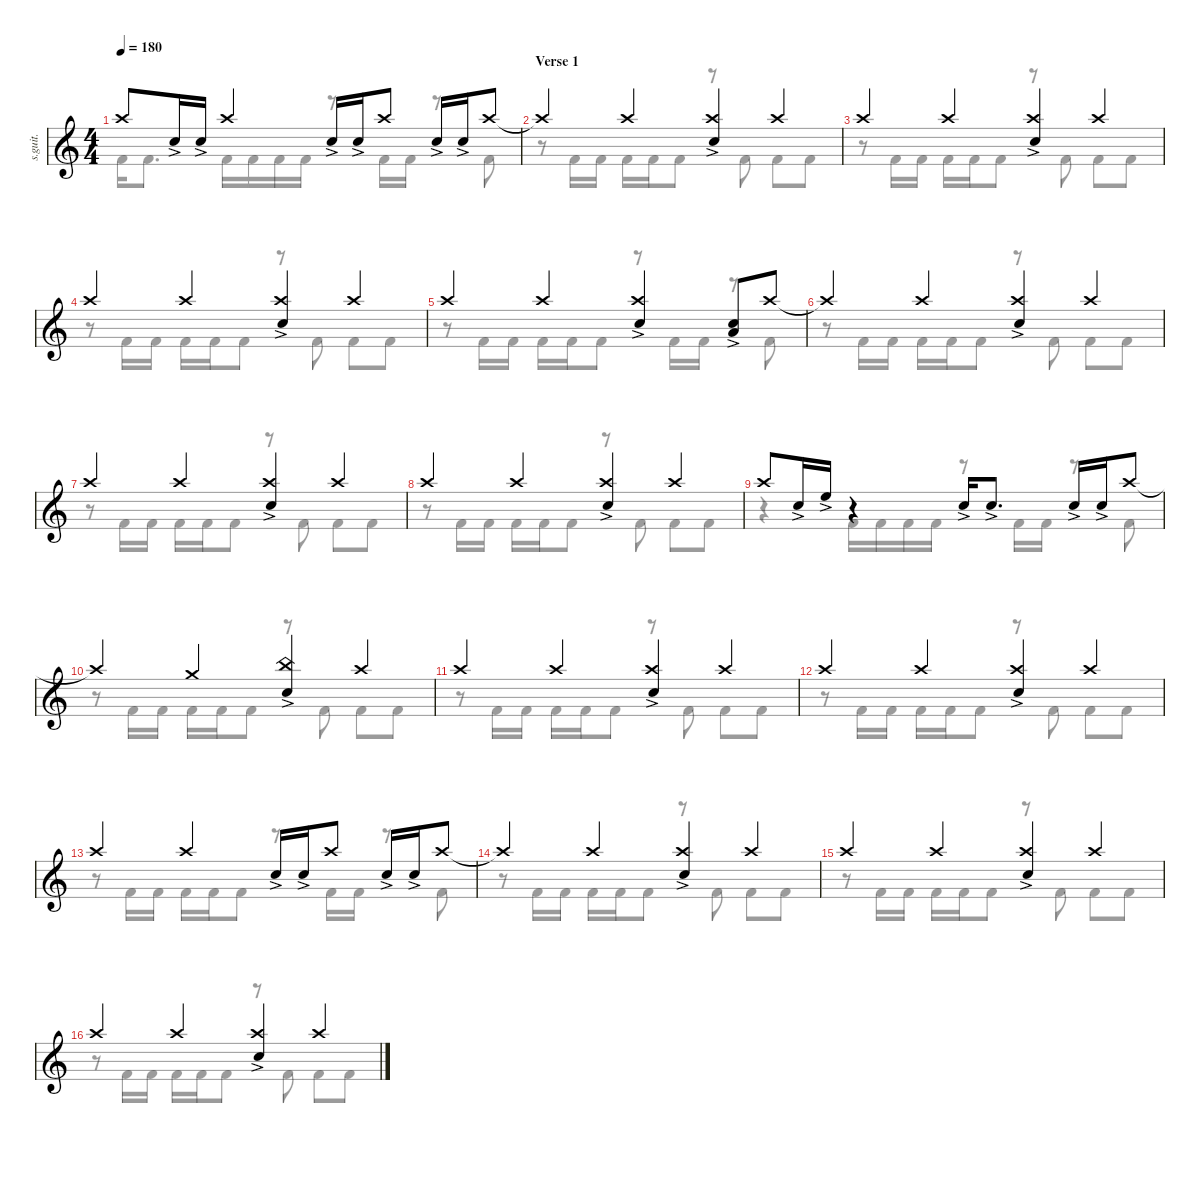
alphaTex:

\defaultSystemsLayout 4
\hideDynamics
\bracketExtendMode nobrackets
\track ("Percussion" "s.guit.") {instrument percussion}
\staff {score}
\articulation defaults
\voice
\ts (4 4)
\tempo 180
\clef g2
\ks c "Crash high (hit)".8{lyrics (0 "") lyrics (1 "") lyrics (2 "") lyrics (3 "") lyrics (4 "") dy f} "Snare (hit) 2"{ac}.16{lyrics (0 "") lyrics (1 "") lyrics (2 "") lyrics (3 "") lyrics (4 "")} "Snare (hit) 2"{ac}.16{lyrics (0 "") lyrics (1 "") lyrics (2 "") lyrics (3 "") lyrics (4 "")} "Crash high (hit)".4{lyrics (0 "") lyrics (1 "") lyrics (2 "") lyrics (3 "") lyrics (4 "")} "Snare (hit) 2"{ac}.16{lyrics (0 "") lyrics (1 "") lyrics (2 "") lyrics (3 "") lyrics (4 "")} "Snare (hit) 2"{ac}.16{lyrics (0 "") lyrics (1 "") lyrics (2 "") lyrics (3 "") lyrics (4 "")} "Crash high (hit)".8{lyrics (0 "") lyrics (1 "") lyrics (2 "") lyrics (3 "") lyrics (4 "")} "Snare (hit) 2"{ac}.16{lyrics (0 "") lyrics (1 "") lyrics (2 "") lyrics (3 "") lyrics (4 "")} "Snare (hit) 2"{ac}.16{lyrics (0 "") lyrics (1 "") lyrics (2 "") lyrics (3 "") lyrics (4 "")} "Crash high (hit)".8{lyrics (0 "") lyrics (1 "") lyrics (2 "") lyrics (3 "") lyrics (4 "")}
|
\section ("" "Verse 1")
"Crash high (hit)"{t}.4{lyrics (0 "") lyrics (1 "") lyrics (2 "") lyrics (3 "") lyrics (4 "")} "Crash high (hit)".4{lyrics (0 "") lyrics (1 "") lyrics (2 "") lyrics (3 "") lyrics (4 "")} ("Crash high (hit)" "Snare (hit) 2"{ac}).4{lyrics (0 "") lyrics (1 "") lyrics (2 "") lyrics (3 "") lyrics (4 "")} "Crash high (hit)".4{lyrics (0 "") lyrics (1 "") lyrics (2 "") lyrics (3 "") lyrics (4 "")} |
"Crash high (hit)".4{lyrics (0 "") lyrics (1 "") lyrics (2 "") lyrics (3 "") lyrics (4 "")} "Crash high (hit)".4{lyrics (0 "") lyrics (1 "") lyrics (2 "") lyrics (3 "") lyrics (4 "")} ("Crash high (hit)" "Snare (hit) 2"{ac}).4{lyrics (0 "") lyrics (1 "") lyrics (2 "") lyrics (3 "") lyrics (4 "")} "Crash high (hit)".4{lyrics (0 "") lyrics (1 "") lyrics (2 "") lyrics (3 "") lyrics (4 "")} |
"Crash high (hit)".4{lyrics (0 "") lyrics (1 "") lyrics (2 "") lyrics (3 "") lyrics (4 "")} "Crash high (hit)".4{lyrics (0 "") lyrics (1 "") lyrics (2 "") lyrics (3 "") lyrics (4 "")} ("Crash high (hit)" "Snare (hit) 2"{ac}).4{lyrics (0 "") lyrics (1 "") lyrics (2 "") lyrics (3 "") lyrics (4 "")} "Crash high (hit)".4{lyrics (0 "") lyrics (1 "") lyrics (2 "") lyrics (3 "") lyrics (4 "")} |
"Crash high (hit)".4{lyrics (0 "") lyrics (1 "") lyrics (2 "") lyrics (3 "") lyrics (4 "")} "Crash high (hit)".4{lyrics (0 "") lyrics (1 "") lyrics (2 "") lyrics (3 "") lyrics (4 "")} ("Crash high (hit)" "Snare (hit) 2"{ac}).4{lyrics (0 "") lyrics (1 "") lyrics (2 "") lyrics (3 "") lyrics (4 "")} ("Snare (hit) 2"{ac} "Low Tom (hit)"{ac}).8{lyrics (0 "") lyrics (1 "") lyrics (2 "") lyrics (3 "") lyrics (4 "")} "Crash high (hit)".8{lyrics (0 "") lyrics (1 "") lyrics (2 "") lyrics (3 "") lyrics (4 "")} |
"Crash high (hit)"{t}.4{lyrics (0 "") lyrics (1 "") lyrics (2 "") lyrics (3 "") lyrics (4 "")} "Crash high (hit)".4{lyrics (0 "") lyrics (1 "") lyrics (2 "") lyrics (3 "") lyrics (4 "")} ("Crash high (hit)" "Snare (hit) 2"{ac}).4{lyrics (0 "") lyrics (1 "") lyrics (2 "") lyrics (3 "") lyrics (4 "")} "Crash high (hit)".4{lyrics (0 "") lyrics (1 "") lyrics (2 "") lyrics (3 "") lyrics (4 "")} |
"Crash high (hit)".4{lyrics (0 "") lyrics (1 "") lyrics (2 "") lyrics (3 "") lyrics (4 "")} "Crash high (hit)".4{lyrics (0 "") lyrics (1 "") lyrics (2 "") lyrics (3 "") lyrics (4 "")} ("Crash high (hit)" "Snare (hit) 2"{ac}).4{lyrics (0 "") lyrics (1 "") lyrics (2 "") lyrics (3 "") lyrics (4 "")} "Crash high (hit)".4{lyrics (0 "") lyrics (1 "") lyrics (2 "") lyrics (3 "") lyrics (4 "")} |
"Crash high (hit)".4{lyrics (0 "") lyrics (1 "") lyrics (2 "") lyrics (3 "") lyrics (4 "")} "Crash high (hit)".4{lyrics (0 "") lyrics (1 "") lyrics (2 "") lyrics (3 "") lyrics (4 "")} ("Crash high (hit)" "Snare (hit) 2"{ac}).4{lyrics (0 "") lyrics (1 "") lyrics (2 "") lyrics (3 "") lyrics (4 "")} "Crash high (hit)".4{lyrics (0 "") lyrics (1 "") lyrics (2 "") lyrics (3 "") lyrics (4 "")} |
"Crash high (hit)".8{lyrics (0 "") lyrics (1 "") lyrics (2 "") lyrics (3 "") lyrics (4 "")} "Snare (hit) 2"{ac}.16{lyrics (0 "") lyrics (1 "") lyrics (2 "") lyrics (3 "") lyrics (4 "")} "High Floor Tom (hit)"{ac}.16{lyrics (0 "") lyrics (1 "") lyrics (2 "") lyrics (3 "") lyrics (4 "")} r.4 "Snare (hit) 2"{ac}.16{lyrics (0 "") lyrics (1 "") lyrics (2 "") lyrics (3 "") lyrics (4 "")} "Snare (hit) 2"{ac}.8{d lyrics (0 "") lyrics (1 "") lyrics (2 "") lyrics (3 "") lyrics (4 "")} "Snare (hit) 2"{ac}.16{lyrics (0 "") lyrics (1 "") lyrics (2 "") lyrics (3 "") lyrics (4 "")} "Snare (hit) 2"{ac}.16{lyrics (0 "") lyrics (1 "") lyrics (2 "") lyrics (3 "") lyrics (4 "")} "Crash high (hit)".8{lyrics (0 "") lyrics (1 "") lyrics (2 "") lyrics (3 "") lyrics (4 "")} |
"Crash high (hit)"{t}.4{lyrics (0 "") lyrics (1 "") lyrics (2 "") lyrics (3 "") lyrics (4 "")} "Crash medium (hit)".4{lyrics (0 "") lyrics (1 "") lyrics (2 "") lyrics (3 "") lyrics (4 "")} ("Snare (hit) 2"{ac} "China (hit)").4{lyrics (0 "") lyrics (1 "") lyrics (2 "") lyrics (3 "") lyrics (4 "")} "Crash high (hit)".4{lyrics (0 "") lyrics (1 "") lyrics (2 "") lyrics (3 "") lyrics (4 "")} |
"Crash high (hit)".4{lyrics (0 "") lyrics (1 "") lyrics (2 "") lyrics (3 "") lyrics (4 "")} "Crash high (hit)".4{lyrics (0 "") lyrics (1 "") lyrics (2 "") lyrics (3 "") lyrics (4 "")} ("Crash high (hit)" "Snare (hit) 2"{ac}).4{lyrics (0 "") lyrics (1 "") lyrics (2 "") lyrics (3 "") lyrics (4 "")} "Crash high (hit)".4{lyrics (0 "") lyrics (1 "") lyrics (2 "") lyrics (3 "") lyrics (4 "")} |
"Crash high (hit)".4{lyrics (0 "") lyrics (1 "") lyrics (2 "") lyrics (3 "") lyrics (4 "")} "Crash high (hit)".4{lyrics (0 "") lyrics (1 "") lyrics (2 "") lyrics (3 "") lyrics (4 "")} ("Crash high (hit)" "Snare (hit) 2"{ac}).4{lyrics (0 "") lyrics (1 "") lyrics (2 "") lyrics (3 "") lyrics (4 "")} "Crash high (hit)".4{lyrics (0 "") lyrics (1 "") lyrics (2 "") lyrics (3 "") lyrics (4 "")} |
"Crash high (hit)".4{lyrics (0 "") lyrics (1 "") lyrics (2 "") lyrics (3 "") lyrics (4 "")} "Crash high (hit)".4{lyrics (0 "") lyrics (1 "") lyrics (2 "") lyrics (3 "") lyrics (4 "")} "Snare (hit) 2"{ac}.16{lyrics (0 "") lyrics (1 "") lyrics (2 "") lyrics (3 "") lyrics (4 "")} "Snare (hit) 2"{ac}.16{lyrics (0 "") lyrics (1 "") lyrics (2 "") lyrics (3 "") lyrics (4 "")} "Crash high (hit)".8{lyrics (0 "") lyrics (1 "") lyrics (2 "") lyrics (3 "") lyrics (4 "")} "Snare (hit) 2"{ac}.16{lyrics (0 "") lyrics (1 "") lyrics (2 "") lyrics (3 "") lyrics (4 "")} "Snare (hit) 2"{ac}.16{lyrics (0 "") lyrics (1 "") lyrics (2 "") lyrics (3 "") lyrics (4 "")} "Crash high (hit)".8{lyrics (0 "") lyrics (1 "") lyrics (2 "") lyrics (3 "") lyrics (4 "")} |
"Crash high (hit)"{t}.4{lyrics (0 "") lyrics (1 "") lyrics (2 "") lyrics (3 "") lyrics (4 "")} "Crash high (hit)".4{lyrics (0 "") lyrics (1 "") lyrics (2 "") lyrics (3 "") lyrics (4 "")} ("Crash high (hit)" "Snare (hit) 2"{ac}).4{lyrics (0 "") lyrics (1 "") lyrics (2 "") lyrics (3 "") lyrics (4 "")} "Crash high (hit)".4{lyrics (0 "") lyrics (1 "") lyrics (2 "") lyrics (3 "") lyrics (4 "")} |
"Crash high (hit)".4{lyrics (0 "") lyrics (1 "") lyrics (2 "") lyrics (3 "") lyrics (4 "")} "Crash high (hit)".4{lyrics (0 "") lyrics (1 "") lyrics (2 "") lyrics (3 "") lyrics (4 "")} ("Crash high (hit)" "Snare (hit) 2"{ac}).4{lyrics (0 "") lyrics (1 "") lyrics (2 "") lyrics (3 "") lyrics (4 "")} "Crash high (hit)".4{lyrics (0 "") lyrics (1 "") lyrics (2 "") lyrics (3 "") lyrics (4 "")} |
"Crash high (hit)".4{lyrics (0 "") lyrics (1 "") lyrics (2 "") lyrics (3 "") lyrics (4 "")} "Crash high (hit)".4{lyrics (0 "") lyrics (1 "") lyrics (2 "") lyrics (3 "") lyrics (4 "")} ("Crash high (hit)" "Snare (hit) 2"{ac}).4{lyrics (0 "") lyrics (1 "") lyrics (2 "") lyrics (3 "") lyrics (4 "")} "Crash high (hit)".4{lyrics (0 "") lyrics (1 "") lyrics (2 "") lyrics (3 "") lyrics (4 "")}
\voice
\clef g2
\ottava regular
\simile none
\ks c "Kick (hit) 2".16{lyrics (0 "") lyrics (1 "") lyrics (2 "") lyrics (3 "") lyrics (4 "") dy f} "Kick (hit) 2".8{d lyrics (0 "") lyrics (1 "") lyrics (2 "") lyrics (3 "") lyrics (4 "")} "Kick (hit) 2".16{lyrics (0 "") lyrics (1 "") lyrics (2 "") lyrics (3 "") lyrics (4 "")} "Kick (hit) 2".16{lyrics (0 "") lyrics (1 "") lyrics (2 "") lyrics (3 "") lyrics (4 "")} "Kick (hit) 2".16{lyrics (0 "") lyrics (1 "") lyrics (2 "") lyrics (3 "") lyrics (4 "")} "Kick (hit) 2".16{lyrics (0 "") lyrics (1 "") lyrics (2 "") lyrics (3 "") lyrics (4 "")}
r.8 "Kick (hit) 2".16{lyrics (0 "") lyrics (1 "") lyrics (2 "") lyrics (3 "") lyrics (4 "")} "Kick (hit) 2".16{lyrics (0 "") lyrics (1 "") lyrics (2 "") lyrics (3 "") lyrics (4 "")} r.8 "Kick (hit) 2".8{lyrics (0 "") lyrics (1 "") lyrics (2 "") lyrics (3 "") lyrics (4 "")} |
r.8 "Kick (hit) 2".16{lyrics (0 "") lyrics (1 "") lyrics (2 "") lyrics (3 "") lyrics (4 "")} "Kick (hit) 2".16{lyrics (0 "") lyrics (1 "") lyrics (2 "") lyrics (3 "") lyrics (4 "")} "Kick (hit) 2".16{lyrics (0 "") lyrics (1 "") lyrics (2 "") lyrics (3 "") lyrics (4 "")} "Kick (hit) 2".16{lyrics (0 "") lyrics (1 "") lyrics (2 "") lyrics (3 "") lyrics (4 "")} "Kick (hit) 2".8{lyrics (0 "") lyrics (1 "") lyrics (2 "") lyrics (3 "") lyrics (4 "")} r.8 "Kick (hit) 2".8{lyrics (0 "") lyrics (1 "") lyrics (2 "") lyrics (3 "") lyrics (4 "")} "Kick (hit) 2".8{lyrics (0 "") lyrics (1 "") lyrics (2 "") lyrics (3 "") lyrics (4 "")} "Kick (hit) 2".8{lyrics (0 "") lyrics (1 "") lyrics (2 "") lyrics (3 "") lyrics (4 "")} |
r.8 "Kick (hit) 2".16{lyrics (0 "") lyrics (1 "") lyrics (2 "") lyrics (3 "") lyrics (4 "")} "Kick (hit) 2".16{lyrics (0 "") lyrics (1 "") lyrics (2 "") lyrics (3 "") lyrics (4 "")} "Kick (hit) 2".16{lyrics (0 "") lyrics (1 "") lyrics (2 "") lyrics (3 "") lyrics (4 "")} "Kick (hit) 2".16{lyrics (0 "") lyrics (1 "") lyrics (2 "") lyrics (3 "") lyrics (4 "")} "Kick (hit) 2".8{lyrics (0 "") lyrics (1 "") lyrics (2 "") lyrics (3 "") lyrics (4 "")} r.8 "Kick (hit) 2".8{lyrics (0 "") lyrics (1 "") lyrics (2 "") lyrics (3 "") lyrics (4 "")} "Kick (hit) 2".8{lyrics (0 "") lyrics (1 "") lyrics (2 "") lyrics (3 "") lyrics (4 "")} "Kick (hit) 2".8{lyrics (0 "") lyrics (1 "") lyrics (2 "") lyrics (3 "") lyrics (4 "")} |
r.8 "Kick (hit) 2".16{lyrics (0 "") lyrics (1 "") lyrics (2 "") lyrics (3 "") lyrics (4 "")} "Kick (hit) 2".16{lyrics (0 "") lyrics (1 "") lyrics (2 "") lyrics (3 "") lyrics (4 "")} "Kick (hit) 2".16{lyrics (0 "") lyrics (1 "") lyrics (2 "") lyrics (3 "") lyrics (4 "")} "Kick (hit) 2".16{lyrics (0 "") lyrics (1 "") lyrics (2 "") lyrics (3 "") lyrics (4 "")} "Kick (hit) 2".8{lyrics (0 "") lyrics (1 "") lyrics (2 "") lyrics (3 "") lyrics (4 "")} r.8 "Kick (hit) 2".8{lyrics (0 "") lyrics (1 "") lyrics (2 "") lyrics (3 "") lyrics (4 "")} "Kick (hit) 2".8{lyrics (0 "") lyrics (1 "") lyrics (2 "") lyrics (3 "") lyrics (4 "")} "Kick (hit) 2".8{lyrics (0 "") lyrics (1 "") lyrics (2 "") lyrics (3 "") lyrics (4 "")} |
r.8 "Kick (hit) 2".16{lyrics (0 "") lyrics (1 "") lyrics (2 "") lyrics (3 "") lyrics (4 "")} "Kick (hit) 2".16{lyrics (0 "") lyrics (1 "") lyrics (2 "") lyrics (3 "") lyrics (4 "")} "Kick (hit) 2".16{lyrics (0 "") lyrics (1 "") lyrics (2 "") lyrics (3 "") lyrics (4 "")} "Kick (hit) 2".16{lyrics (0 "") lyrics (1 "") lyrics (2 "") lyrics (3 "") lyrics (4 "")} "Kick (hit) 2".8{lyrics (0 "") lyrics (1 "") lyrics (2 "") lyrics (3 "") lyrics (4 "")} r.8 "Kick (hit) 2".16{lyrics (0 "") lyrics (1 "") lyrics (2 "") lyrics (3 "") lyrics (4 "")} "Kick (hit) 2".16{lyrics (0 "") lyrics (1 "") lyrics (2 "") lyrics (3 "") lyrics (4 "")} r.8 "Kick (hit) 2".8{lyrics (0 "") lyrics (1 "") lyrics (2 "") lyrics (3 "") lyrics (4 "")} |
r.8 "Kick (hit) 2".16{lyrics (0 "") lyrics (1 "") lyrics (2 "") lyrics (3 "") lyrics (4 "")} "Kick (hit) 2".16{lyrics (0 "") lyrics (1 "") lyrics (2 "") lyrics (3 "") lyrics (4 "")} "Kick (hit) 2".16{lyrics (0 "") lyrics (1 "") lyrics (2 "") lyrics (3 "") lyrics (4 "")} "Kick (hit) 2".16{lyrics (0 "") lyrics (1 "") lyrics (2 "") lyrics (3 "") lyrics (4 "")} "Kick (hit) 2".8{lyrics (0 "") lyrics (1 "") lyrics (2 "") lyrics (3 "") lyrics (4 "")} r.8 "Kick (hit) 2".8{lyrics (0 "") lyrics (1 "") lyrics (2 "") lyrics (3 "") lyrics (4 "")} "Kick (hit) 2".8{lyrics (0 "") lyrics (1 "") lyrics (2 "") lyrics (3 "") lyrics (4 "")} "Kick (hit) 2".8{lyrics (0 "") lyrics (1 "") lyrics (2 "") lyrics (3 "") lyrics (4 "")} |
r.8 "Kick (hit) 2".16{lyrics (0 "") lyrics (1 "") lyrics (2 "") lyrics (3 "") lyrics (4 "")} "Kick (hit) 2".16{lyrics (0 "") lyrics (1 "") lyrics (2 "") lyrics (3 "") lyrics (4 "")} "Kick (hit) 2".16{lyrics (0 "") lyrics (1 "") lyrics (2 "") lyrics (3 "") lyrics (4 "")} "Kick (hit) 2".16{lyrics (0 "") lyrics (1 "") lyrics (2 "") lyrics (3 "") lyrics (4 "")} "Kick (hit) 2".8{lyrics (0 "") lyrics (1 "") lyrics (2 "") lyrics (3 "") lyrics (4 "")} r.8 "Kick (hit) 2".8{lyrics (0 "") lyrics (1 "") lyrics (2 "") lyrics (3 "") lyrics (4 "")} "Kick (hit) 2".8{lyrics (0 "") lyrics (1 "") lyrics (2 "") lyrics (3 "") lyrics (4 "")} "Kick (hit) 2".8{lyrics (0 "") lyrics (1 "") lyrics (2 "") lyrics (3 "") lyrics (4 "")} |
r.8 "Kick (hit) 2".16{lyrics (0 "") lyrics (1 "") lyrics (2 "") lyrics (3 "") lyrics (4 "")} "Kick (hit) 2".16{lyrics (0 "") lyrics (1 "") lyrics (2 "") lyrics (3 "") lyrics (4 "")} "Kick (hit) 2".16{lyrics (0 "") lyrics (1 "") lyrics (2 "") lyrics (3 "") lyrics (4 "")} "Kick (hit) 2".16{lyrics (0 "") lyrics (1 "") lyrics (2 "") lyrics (3 "") lyrics (4 "")} "Kick (hit) 2".8{lyrics (0 "") lyrics (1 "") lyrics (2 "") lyrics (3 "") lyrics (4 "")} r.8 "Kick (hit) 2".8{lyrics (0 "") lyrics (1 "") lyrics (2 "") lyrics (3 "") lyrics (4 "")} "Kick (hit) 2".8{lyrics (0 "") lyrics (1 "") lyrics (2 "") lyrics (3 "") lyrics (4 "")} "Kick (hit) 2".8{lyrics (0 "") lyrics (1 "") lyrics (2 "") lyrics (3 "") lyrics (4 "")} |
r.4 "Kick (hit) 2".16{lyrics (0 "") lyrics (1 "") lyrics (2 "") lyrics (3 "") lyrics (4 "")} "Kick (hit) 2".16{lyrics (0 "") lyrics (1 "") lyrics (2 "") lyrics (3 "") lyrics (4 "")} "Kick (hit) 2".16{lyrics (0 "") lyrics (1 "") lyrics (2 "") lyrics (3 "") lyrics (4 "")} "Kick (hit) 2".16{lyrics (0 "") lyrics (1 "") lyrics (2 "") lyrics (3 "") lyrics (4 "")} r.8 "Kick (hit) 2".16{lyrics (0 "") lyrics (1 "") lyrics (2 "") lyrics (3 "") lyrics (4 "")} "Kick (hit) 2".16{lyrics (0 "") lyrics (1 "") lyrics (2 "") lyrics (3 "") lyrics (4 "")} r.8 "Kick (hit) 2".8{lyrics (0 "") lyrics (1 "") lyrics (2 "") lyrics (3 "") lyrics (4 "")} |
r.8 "Kick (hit) 2".16{lyrics (0 "") lyrics (1 "") lyrics (2 "") lyrics (3 "") lyrics (4 "")} "Kick (hit) 2".16{lyrics (0 "") lyrics (1 "") lyrics (2 "") lyrics (3 "") lyrics (4 "")} "Kick (hit) 2".16{lyrics (0 "") lyrics (1 "") lyrics (2 "") lyrics (3 "") lyrics (4 "")} "Kick (hit) 2".16{lyrics (0 "") lyrics (1 "") lyrics (2 "") lyrics (3 "") lyrics (4 "")} "Kick (hit) 2".8{lyrics (0 "") lyrics (1 "") lyrics (2 "") lyrics (3 "") lyrics (4 "")} r.8 "Kick (hit) 2".8{lyrics (0 "") lyrics (1 "") lyrics (2 "") lyrics (3 "") lyrics (4 "")} "Kick (hit) 2".8{lyrics (0 "") lyrics (1 "") lyrics (2 "") lyrics (3 "") lyrics (4 "")} "Kick (hit) 2".8{lyrics (0 "") lyrics (1 "") lyrics (2 "") lyrics (3 "") lyrics (4 "")} |
r.8 "Kick (hit) 2".16{lyrics (0 "") lyrics (1 "") lyrics (2 "") lyrics (3 "") lyrics (4 "")} "Kick (hit) 2".16{lyrics (0 "") lyrics (1 "") lyrics (2 "") lyrics (3 "") lyrics (4 "")} "Kick (hit) 2".16{lyrics (0 "") lyrics (1 "") lyrics (2 "") lyrics (3 "") lyrics (4 "")} "Kick (hit) 2".16{lyrics (0 "") lyrics (1 "") lyrics (2 "") lyrics (3 "") lyrics (4 "")} "Kick (hit) 2".8{lyrics (0 "") lyrics (1 "") lyrics (2 "") lyrics (3 "") lyrics (4 "")} r.8 "Kick (hit) 2".8{lyrics (0 "") lyrics (1 "") lyrics (2 "") lyrics (3 "") lyrics (4 "")} "Kick (hit) 2".8{lyrics (0 "") lyrics (1 "") lyrics (2 "") lyrics (3 "") lyrics (4 "")} "Kick (hit) 2".8{lyrics (0 "") lyrics (1 "") lyrics (2 "") lyrics (3 "") lyrics (4 "")} |
r.8 "Kick (hit) 2".16{lyrics (0 "") lyrics (1 "") lyrics (2 "") lyrics (3 "") lyrics (4 "")} "Kick (hit) 2".16{lyrics (0 "") lyrics (1 "") lyrics (2 "") lyrics (3 "") lyrics (4 "")} "Kick (hit) 2".16{lyrics (0 "") lyrics (1 "") lyrics (2 "") lyrics (3 "") lyrics (4 "")} "Kick (hit) 2".16{lyrics (0 "") lyrics (1 "") lyrics (2 "") lyrics (3 "") lyrics (4 "")} "Kick (hit) 2".8{lyrics (0 "") lyrics (1 "") lyrics (2 "") lyrics (3 "") lyrics (4 "")} r.8 "Kick (hit) 2".8{lyrics (0 "") lyrics (1 "") lyrics (2 "") lyrics (3 "") lyrics (4 "")} "Kick (hit) 2".8{lyrics (0 "") lyrics (1 "") lyrics (2 "") lyrics (3 "") lyrics (4 "")} "Kick (hit) 2".8{lyrics (0 "") lyrics (1 "") lyrics (2 "") lyrics (3 "") lyrics (4 "")} |
r.8 "Kick (hit) 2".16{lyrics (0 "") lyrics (1 "") lyrics (2 "") lyrics (3 "") lyrics (4 "")} "Kick (hit) 2".16{lyrics (0 "") lyrics (1 "") lyrics (2 "") lyrics (3 "") lyrics (4 "")} "Kick (hit) 2".16{lyrics (0 "") lyrics (1 "") lyrics (2 "") lyrics (3 "") lyrics (4 "")} "Kick (hit) 2".16{lyrics (0 "") lyrics (1 "") lyrics (2 "") lyrics (3 "") lyrics (4 "")} "Kick (hit) 2".8{lyrics (0 "") lyrics (1 "") lyrics (2 "") lyrics (3 "") lyrics (4 "")} r.8 "Kick (hit) 2".16{lyrics (0 "") lyrics (1 "") lyrics (2 "") lyrics (3 "") lyrics (4 "")} "Kick (hit) 2".16{lyrics (0 "") lyrics (1 "") lyrics (2 "") lyrics (3 "") lyrics (4 "")} r.8 "Kick (hit) 2".8{lyrics (0 "") lyrics (1 "") lyrics (2 "") lyrics (3 "") lyrics (4 "")} |
r.8 "Kick (hit) 2".16{lyrics (0 "") lyrics (1 "") lyrics (2 "") lyrics (3 "") lyrics (4 "")} "Kick (hit) 2".16{lyrics (0 "") lyrics (1 "") lyrics (2 "") lyrics (3 "") lyrics (4 "")} "Kick (hit) 2".16{lyrics (0 "") lyrics (1 "") lyrics (2 "") lyrics (3 "") lyrics (4 "")} "Kick (hit) 2".16{lyrics (0 "") lyrics (1 "") lyrics (2 "") lyrics (3 "") lyrics (4 "")} "Kick (hit) 2".8{lyrics (0 "") lyrics (1 "") lyrics (2 "") lyrics (3 "") lyrics (4 "")} r.8 "Kick (hit) 2".8{lyrics (0 "") lyrics (1 "") lyrics (2 "") lyrics (3 "") lyrics (4 "")} "Kick (hit) 2".8{lyrics (0 "") lyrics (1 "") lyrics (2 "") lyrics (3 "") lyrics (4 "")} "Kick (hit) 2".8{lyrics (0 "") lyrics (1 "") lyrics (2 "") lyrics (3 "") lyrics (4 "")} |
r.8 "Kick (hit) 2".16{lyrics (0 "") lyrics (1 "") lyrics (2 "") lyrics (3 "") lyrics (4 "")} "Kick (hit) 2".16{lyrics (0 "") lyrics (1 "") lyrics (2 "") lyrics (3 "") lyrics (4 "")} "Kick (hit) 2".16{lyrics (0 "") lyrics (1 "") lyrics (2 "") lyrics (3 "") lyrics (4 "")} "Kick (hit) 2".16{lyrics (0 "") lyrics (1 "") lyrics (2 "") lyrics (3 "") lyrics (4 "")} "Kick (hit) 2".8{lyrics (0 "") lyrics (1 "") lyrics (2 "") lyrics (3 "") lyrics (4 "")} r.8 "Kick (hit) 2".8{lyrics (0 "") lyrics (1 "") lyrics (2 "") lyrics (3 "") lyrics (4 "")} "Kick (hit) 2".8{lyrics (0 "") lyrics (1 "") lyrics (2 "") lyrics (3 "") lyrics (4 "")} "Kick (hit) 2".8{lyrics (0 "") lyrics (1 "") lyrics (2 "") lyrics (3 "") lyrics (4 "")} |
r.8 "Kick (hit) 2".16{lyrics (0 "") lyrics (1 "") lyrics (2 "") lyrics (3 "") lyrics (4 "")} "Kick (hit) 2".16{lyrics (0 "") lyrics (1 "") lyrics (2 "") lyrics (3 "") lyrics (4 "")} "Kick (hit) 2".16{lyrics (0 "") lyrics (1 "") lyrics (2 "") lyrics (3 "") lyrics (4 "")} "Kick (hit) 2".16{lyrics (0 "") lyrics (1 "") lyrics (2 "") lyrics (3 "") lyrics (4 "")} "Kick (hit) 2".8{lyrics (0 "") lyrics (1 "") lyrics (2 "") lyrics (3 "") lyrics (4 "")} r.8 "Kick (hit) 2".8{lyrics (0 "") lyrics (1 "") lyrics (2 "") lyrics (3 "") lyrics (4 "")} "Kick (hit) 2".8{lyrics (0 "") lyrics (1 "") lyrics (2 "") lyrics (3 "") lyrics (4 "")} "Kick (hit) 2".8{lyrics (0 "") lyrics (1 "") lyrics (2 "") lyrics (3 "") lyrics (4 "")}
